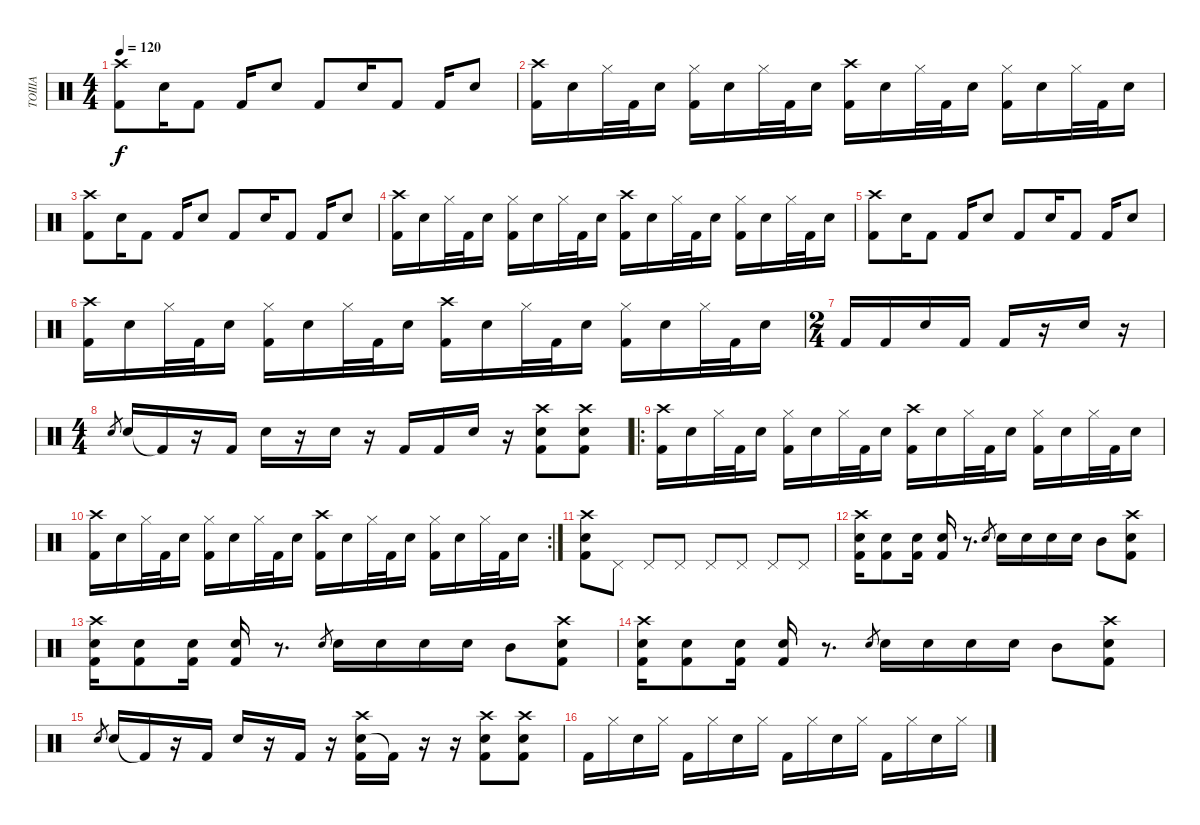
\track ("TOIIIA" "TOIIIA") {instrument percussion}
\staff
\articulation defaults
\ts (4 4)
\tempo 120
\clef neutral
\ks c
("Crash high (hit)" "Kick (hit) 2").8{dy f} "Electric Snare (hit)".16 "Kick (hit) 2".8 "Kick (hit) 2".16 "Electric Snare (hit)".8 "Kick (hit) 2".8 "Electric Snare (hit)".16 "Kick (hit) 2".8 "Kick (hit) 2".16 "Electric Snare (hit)".8 |
("Kick (hit) 2" "Crash high (hit)").16 "Electric Snare (hit)".16 "Hi-Hat (closed)".32 "Kick (hit) 2".32 "Electric Snare (hit)".16 ("Kick (hit) 2" "Hi-Hat (closed)").16 "Electric Snare (hit)".16 "Hi-Hat (closed)".32 "Kick (hit) 2".32 "Electric Snare (hit)".16 ("Kick (hit) 2" "Crash high (hit)").16 "Electric Snare (hit)".16 "Hi-Hat (closed)".32 "Kick (hit) 2".32 "Electric Snare (hit)".16 ("Kick (hit) 2" "Hi-Hat (closed)").16 "Electric Snare (hit)".16 "Hi-Hat (closed)".32 "Kick (hit) 2".32 "Electric Snare (hit)".16 |
("Crash high (hit)" "Kick (hit) 2").8 "Electric Snare (hit)".16 "Kick (hit) 2".8 "Kick (hit) 2".16 "Electric Snare (hit)".8 "Kick (hit) 2".8 "Electric Snare (hit)".16 "Kick (hit) 2".8 "Kick (hit) 2".16 "Electric Snare (hit)".8 |
("Kick (hit) 2" "Crash high (hit)").16 "Electric Snare (hit)".16 "Hi-Hat (closed)".32 "Kick (hit) 2".32 "Electric Snare (hit)".16 ("Kick (hit) 2" "Hi-Hat (closed)").16 "Electric Snare (hit)".16 "Hi-Hat (closed)".32 "Kick (hit) 2".32 "Electric Snare (hit)".16 ("Kick (hit) 2" "Crash high (hit)").16 "Electric Snare (hit)".16 "Hi-Hat (closed)".32 "Kick (hit) 2".32 "Electric Snare (hit)".16 ("Kick (hit) 2" "Hi-Hat (closed)").16 "Electric Snare (hit)".16 "Hi-Hat (closed)".32 "Kick (hit) 2".32 "Electric Snare (hit)".16 |
("Crash high (hit)" "Kick (hit) 2").8 "Electric Snare (hit)".16 "Kick (hit) 2".8 "Kick (hit) 2".16 "Electric Snare (hit)".8 "Kick (hit) 2".8 "Electric Snare (hit)".16 "Kick (hit) 2".8 "Kick (hit) 2".16 "Electric Snare (hit)".8 |
("Kick (hit) 2" "Crash high (hit)").16 "Electric Snare (hit)".16 "Hi-Hat (closed)".32 "Kick (hit) 2".32 "Electric Snare (hit)".16 ("Kick (hit) 2" "Hi-Hat (closed)").16 "Electric Snare (hit)".16 "Hi-Hat (closed)".32 "Kick (hit) 2".32 "Electric Snare (hit)".16 ("Kick (hit) 2" "Crash high (hit)").16 "Electric Snare (hit)".16 "Hi-Hat (closed)".32 "Kick (hit) 2".32 "Electric Snare (hit)".16 ("Kick (hit) 2" "Hi-Hat (closed)").16 "Electric Snare (hit)".16 "Hi-Hat (closed)".32 "Kick (hit) 2".32 "Electric Snare (hit)".16 |
\ts (2 4)
"Kick (hit) 2".16 "Kick (hit) 2".16 "Electric Snare (hit)".16 "Kick (hit) 2".16 "Kick (hit) 2".16 r.16 "Electric Snare (hit)".16 r.16 |
\ts (4 4)
"Electric Snare (hit)".8{gr} "Electric Snare (hit)".16 "Kick (hit) 2"{t}.16 r.16 "Kick (hit) 2".16 "Electric Snare (hit)".16 r.16 "Electric Snare (hit)".16 r.16 "Kick (hit) 2".16 "Kick (hit) 2".16 "Electric Snare (hit)".16 r.16 ("Crash high (hit)" "Kick (hit) 2" "Electric Snare (hit)").8 ("Crash high (hit)" "Kick (hit) 2" "Electric Snare (hit)").8 |
\ro
("Kick (hit) 2" "Crash high (hit)").16 "Electric Snare (hit)".16 "Hi-Hat (closed)".32 "Kick (hit) 2".32 "Electric Snare (hit)".16 ("Kick (hit) 2" "Hi-Hat (closed)").16 "Electric Snare (hit)".16 "Hi-Hat (closed)".32 "Kick (hit) 2".32 "Electric Snare (hit)".16 ("Kick (hit) 2" "Crash high (hit)").16 "Electric Snare (hit)".16 "Hi-Hat (closed)".32 "Kick (hit) 2".32 "Electric Snare (hit)".16 ("Kick (hit) 2" "Hi-Hat (closed)").16 "Electric Snare (hit)".16 "Hi-Hat (closed)".32 "Kick (hit) 2".32 "Electric Snare (hit)".16 |
\rc 2
("Kick (hit) 2" "Crash high (hit)").16 "Electric Snare (hit)".16 "Hi-Hat (closed)".32 "Kick (hit) 2".32 "Electric Snare (hit)".16 ("Kick (hit) 2" "Hi-Hat (closed)").16 "Electric Snare (hit)".16 "Hi-Hat (closed)".32 "Kick (hit) 2".32 "Electric Snare (hit)".16 ("Kick (hit) 2" "Crash high (hit)").16 "Electric Snare (hit)".16 "Hi-Hat (closed)".32 "Kick (hit) 2".32 "Electric Snare (hit)".16 ("Kick (hit) 2" "Hi-Hat (closed)").16 "Electric Snare (hit)".16 "Hi-Hat (closed)".32 "Kick (hit) 2".32 "Electric Snare (hit)".16 |
("Kick (hit) 2" "Crash high (hit)" "Electric Snare (hit)").8 "Pedal Hi-Hat (hit)".8 "Pedal Hi-Hat (hit)".8 "Pedal Hi-Hat (hit)".8 "Pedal Hi-Hat (hit)".8 "Pedal Hi-Hat (hit)".8 "Pedal Hi-Hat (hit)".8 "Pedal Hi-Hat (hit)".8 |
("Kick (hit) 2" "Crash high (hit)" "Electric Snare (hit)").16 ("Kick (hit) 2" "Electric Snare (hit)").8 ("Kick (hit) 2" "Electric Snare (hit)").16 ("Kick (hit) 2" "Electric Snare (hit)").16 r.8{d} "Electric Snare (hit)".8{gr} "Electric Snare (hit)".16 "Electric Snare (hit)".16 "Electric Snare (hit)".16 "Electric Snare (hit)".16 "Mid Tom (hit)".8 ("Kick (hit) 2" "Crash high (hit)" "Electric Snare (hit)").8 |
("Kick (hit) 2" "Crash high (hit)" "Electric Snare (hit)").16 ("Kick (hit) 2" "Electric Snare (hit)").8 ("Kick (hit) 2" "Electric Snare (hit)").16 ("Kick (hit) 2" "Electric Snare (hit)").16 r.8{d} "Electric Snare (hit)".8{gr} "Electric Snare (hit)".16 "Electric Snare (hit)".16 "Electric Snare (hit)".16 "Electric Snare (hit)".16 "Mid Tom (hit)".8 ("Kick (hit) 2" "Crash high (hit)" "Electric Snare (hit)").8 |
("Kick (hit) 2" "Crash high (hit)" "Electric Snare (hit)").16 ("Kick (hit) 2" "Electric Snare (hit)").8 ("Kick (hit) 2" "Electric Snare (hit)").16 ("Kick (hit) 2" "Electric Snare (hit)").16 r.8{d} "Electric Snare (hit)".8{gr} "Electric Snare (hit)".16 "Electric Snare (hit)".16 "Electric Snare (hit)".16 "Electric Snare (hit)".16 "Mid Tom (hit)".8 ("Kick (hit) 2" "Crash high (hit)" "Electric Snare (hit)").8 |
"Electric Snare (hit)".8{gr} "Electric Snare (hit)".16 "Kick (hit) 2"{t}.16 r.16 "Kick (hit) 2".16 "Electric Snare (hit)".16 r.16 "Kick (hit) 2".16 r.16 ("Electric Snare (hit)" "Kick (hit) 2" "Crash high (hit)").16 "Kick (hit) 2"{t}.16 r.16 r.16 ("Crash high (hit)" "Kick (hit) 2" "Electric Snare (hit)").8 ("Crash high (hit)" "Kick (hit) 2" "Electric Snare (hit)").8 |
"Kick (hit) 2".16 "Hi-Hat (closed)".16 "Electric Snare (hit)".16 "Hi-Hat (closed)".16 "Kick (hit) 2".16 "Hi-Hat (closed)".16 "Electric Snare (hit)".16 "Hi-Hat (closed)".16 "Kick (hit) 2".16 "Hi-Hat (closed)".16 "Electric Snare (hit)".16 "Hi-Hat (closed)".16 "Kick (hit) 2".16 "Hi-Hat (closed)".16 "Electric Snare (hit)".16 "Hi-Hat (closed)".16
